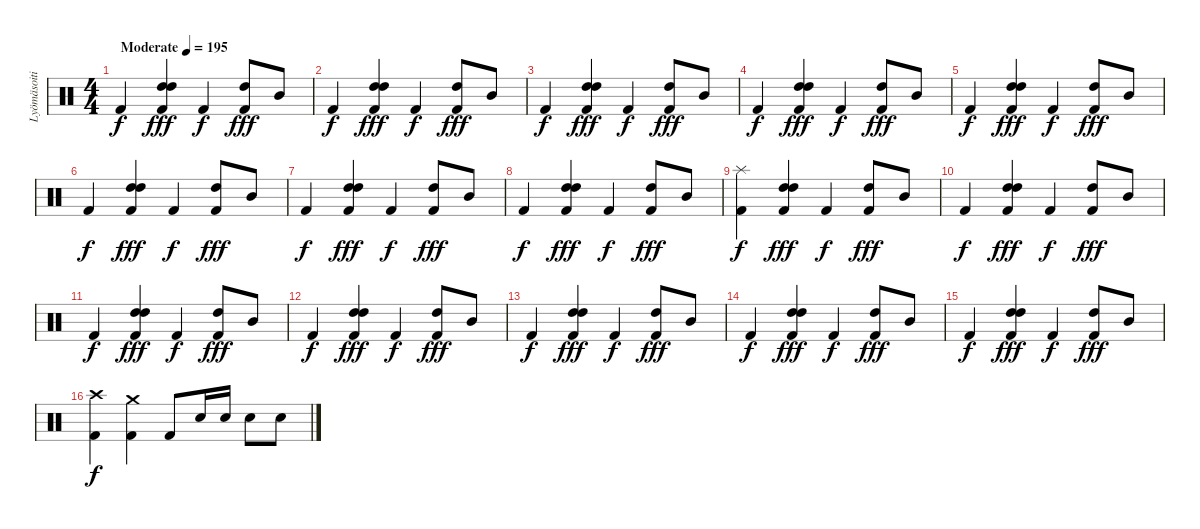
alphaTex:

\track ("Lyömäsoitin" "Lyömäsoiti") {instrument percussion}
\staff {score}
\articulation defaults
\ts (4 4)
\tempo (195 "Moderate")
\clef neutral
\ks c "Kick (hit) 2".4{dy f}
("High Tom (hit)" "High Tom (hit)" "Kick (hit) 2").4{dy fff} "Kick (hit) 2".4{dy f} ("High Tom (hit)" "Kick (hit) 2").8{dy fff} "Mid Tom (hit)".8 |
"Kick (hit) 2".4{dy f} ("High Tom (hit)" "High Tom (hit)" "Kick (hit) 2").4{dy fff} "Kick (hit) 2".4{dy f} ("High Tom (hit)" "Kick (hit) 2").8{dy fff} "Mid Tom (hit)".8 |
"Kick (hit) 2".4{dy f} ("High Tom (hit)" "High Tom (hit)" "Kick (hit) 2").4{dy fff} "Kick (hit) 2".4{dy f} ("High Tom (hit)" "Kick (hit) 2").8{dy fff} "Mid Tom (hit)".8 |
"Kick (hit) 2".4{dy f} ("High Tom (hit)" "High Tom (hit)" "Kick (hit) 2").4{dy fff} "Kick (hit) 2".4{dy f} ("High Tom (hit)" "Kick (hit) 2").8{dy fff} "Mid Tom (hit)".8 |
"Kick (hit) 2".4{dy f} ("High Tom (hit)" "High Tom (hit)" "Kick (hit) 2").4{dy fff} "Kick (hit) 2".4{dy f} ("High Tom (hit)" "Kick (hit) 2").8{dy fff} "Mid Tom (hit)".8 |
"Kick (hit) 2".4{dy f} ("High Tom (hit)" "High Tom (hit)" "Kick (hit) 2").4{dy fff} "Kick (hit) 2".4{dy f} ("High Tom (hit)" "Kick (hit) 2").8{dy fff} "Mid Tom (hit)".8 |
"Kick (hit) 2".4{dy f} ("High Tom (hit)" "High Tom (hit)" "Kick (hit) 2").4{dy fff} "Kick (hit) 2".4{dy f} ("High Tom (hit)" "Kick (hit) 2").8{dy fff} "Mid Tom (hit)".8 |
"Kick (hit) 2".4{dy f} ("High Tom (hit)" "High Tom (hit)" "Kick (hit) 2").4{dy fff} "Kick (hit) 2".4{dy f} ("High Tom (hit)" "Kick (hit) 2").8{dy fff} "Mid Tom (hit)".8 |
("Splash (hit)" "Kick (hit) 2").4{dy f} ("High Tom (hit)" "High Tom (hit)" "Kick (hit) 2").4{dy fff} "Kick (hit) 2".4{dy f} ("High Tom (hit)" "Kick (hit) 2").8{dy fff} "Mid Tom (hit)".8 |
"Kick (hit) 2".4{dy f} ("High Tom (hit)" "High Tom (hit)" "Kick (hit) 2").4{dy fff} "Kick (hit) 2".4{dy f} ("High Tom (hit)" "Kick (hit) 2").8{dy fff} "Mid Tom (hit)".8 |
"Kick (hit) 2".4{dy f} ("High Tom (hit)" "High Tom (hit)" "Kick (hit) 2").4{dy fff} "Kick (hit) 2".4{dy f} ("High Tom (hit)" "Kick (hit) 2").8{dy fff} "Mid Tom (hit)".8 |
"Kick (hit) 2".4{dy f} ("High Tom (hit)" "High Tom (hit)" "Kick (hit) 2").4{dy fff} "Kick (hit) 2".4{dy f} ("High Tom (hit)" "Kick (hit) 2").8{dy fff} "Mid Tom (hit)".8 |
"Kick (hit) 2".4{dy f} ("High Tom (hit)" "High Tom (hit)" "Kick (hit) 2").4{dy fff} "Kick (hit) 2".4{dy f} ("High Tom (hit)" "Kick (hit) 2").8{dy fff} "Mid Tom (hit)".8 |
"Kick (hit) 2".4{dy f} ("High Tom (hit)" "High Tom (hit)" "Kick (hit) 2").4{dy fff} "Kick (hit) 2".4{dy f} ("High Tom (hit)" "Kick (hit) 2").8{dy fff} "Mid Tom (hit)".8 |
"Kick (hit) 2".4{dy f} ("High Tom (hit)" "High Tom (hit)" "Kick (hit) 2").4{dy fff} "Kick (hit) 2".4{dy f} ("High Tom (hit)" "Kick (hit) 2").8{dy fff} "Mid Tom (hit)".8 |
("Crash high (hit)" "Kick (hit) 2").4{dy f} ("Crash medium (hit)" "Kick (hit) 2").4 "Kick (hit) 2".8 "Snare (hit) 2".16 "Snare (hit) 2".16 "Snare (hit) 2".8 "Snare (hit) 2".8
